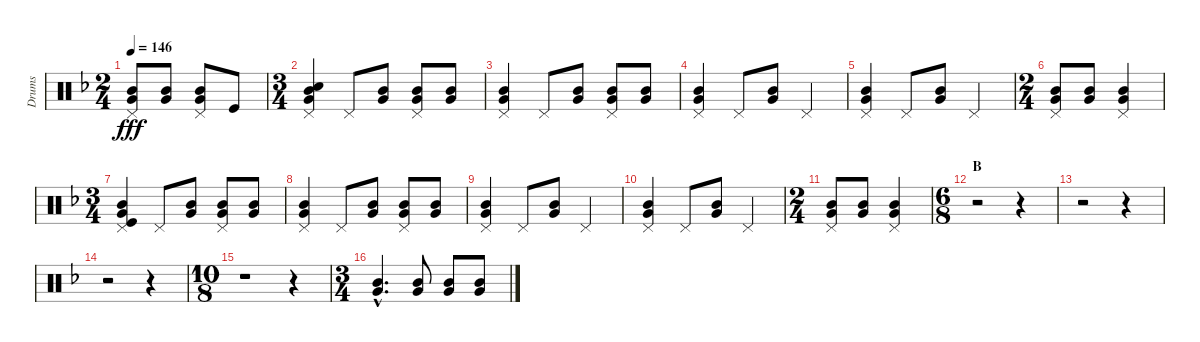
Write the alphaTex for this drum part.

\track ("Drums" "Drums") {instrument percussion}
\staff {score}
\articulation defaults
\ts (2 4)
\tempo 146
\clef neutral
\ks f
("Pedal Hi-Hat (hit)" "Mid Tom (hit)" "Very Low Tom (hit)").8{dy fff} ("Mid Tom (hit)" "Very Low Tom (hit)").8 ("Pedal Hi-Hat (hit)" "Mid Tom (hit)" "Very Low Tom (hit)").8 "Kick (hit)".8 |
\ts (3 4)
("Pedal Hi-Hat (hit)" "Mid Tom (hit)" "Very Low Tom (hit)" "Snare (hit)").4 "Pedal Hi-Hat (hit)".8 ("Mid Tom (hit)" "Very Low Tom (hit)").8 ("Pedal Hi-Hat (hit)" "Mid Tom (hit)" "Very Low Tom (hit)").8 ("Mid Tom (hit)" "Very Low Tom (hit)").8 |
("Pedal Hi-Hat (hit)" "Mid Tom (hit)" "Very Low Tom (hit)").4 "Pedal Hi-Hat (hit)".8 ("Mid Tom (hit)" "Very Low Tom (hit)").8 ("Pedal Hi-Hat (hit)" "Mid Tom (hit)" "Very Low Tom (hit)").8 ("Mid Tom (hit)" "Very Low Tom (hit)").8 |
("Pedal Hi-Hat (hit)" "Mid Tom (hit)" "Very Low Tom (hit)").4 "Pedal Hi-Hat (hit)".8 ("Mid Tom (hit)" "Very Low Tom (hit)").8 "Pedal Hi-Hat (hit)".4 |
("Pedal Hi-Hat (hit)" "Mid Tom (hit)" "Very Low Tom (hit)").4 "Pedal Hi-Hat (hit)".8 ("Mid Tom (hit)" "Very Low Tom (hit)").8 "Pedal Hi-Hat (hit)".4 |
\ts (2 4)
("Pedal Hi-Hat (hit)" "Mid Tom (hit)" "Very Low Tom (hit)").8 ("Mid Tom (hit)" "Very Low Tom (hit)").8 ("Pedal Hi-Hat (hit)" "Mid Tom (hit)" "Very Low Tom (hit)").4 |
\ts (3 4)
("Pedal Hi-Hat (hit)" "Mid Tom (hit)" "Very Low Tom (hit)" "Kick (hit)").4 "Pedal Hi-Hat (hit)".8 ("Mid Tom (hit)" "Very Low Tom (hit)").8 ("Pedal Hi-Hat (hit)" "Mid Tom (hit)" "Very Low Tom (hit)").8 ("Mid Tom (hit)" "Very Low Tom (hit)").8 |
("Pedal Hi-Hat (hit)" "Mid Tom (hit)" "Very Low Tom (hit)").4 "Pedal Hi-Hat (hit)".8 ("Mid Tom (hit)" "Very Low Tom (hit)").8 ("Pedal Hi-Hat (hit)" "Mid Tom (hit)" "Very Low Tom (hit)").8 ("Mid Tom (hit)" "Very Low Tom (hit)").8 |
("Pedal Hi-Hat (hit)" "Mid Tom (hit)" "Very Low Tom (hit)").4 "Pedal Hi-Hat (hit)".8 ("Mid Tom (hit)" "Very Low Tom (hit)").8 "Pedal Hi-Hat (hit)".4 |
("Pedal Hi-Hat (hit)" "Mid Tom (hit)" "Very Low Tom (hit)").4 "Pedal Hi-Hat (hit)".8 ("Mid Tom (hit)" "Very Low Tom (hit)").8 "Pedal Hi-Hat (hit)".4 |
\ts (2 4)
("Pedal Hi-Hat (hit)" "Mid Tom (hit)" "Very Low Tom (hit)").8 ("Mid Tom (hit)" "Very Low Tom (hit)").8 ("Pedal Hi-Hat (hit)" "Mid Tom (hit)" "Very Low Tom (hit)").4 |
\ts (6 8)
\section ("" "B")
r.2 r.4 |
r.2 r.4 |
r.2 r.4 |
\ts (10 8)
r.1 r.4 |
\ts (3 4)
("Mid Tom (hit)"{hac} "Very Low Tom (hit)"{hac}).4{d} ("Mid Tom (hit)" "Very Low Tom (hit)").8 ("Mid Tom (hit)" "Very Low Tom (hit)").8 ("Mid Tom (hit)" "Very Low Tom (hit)").8
